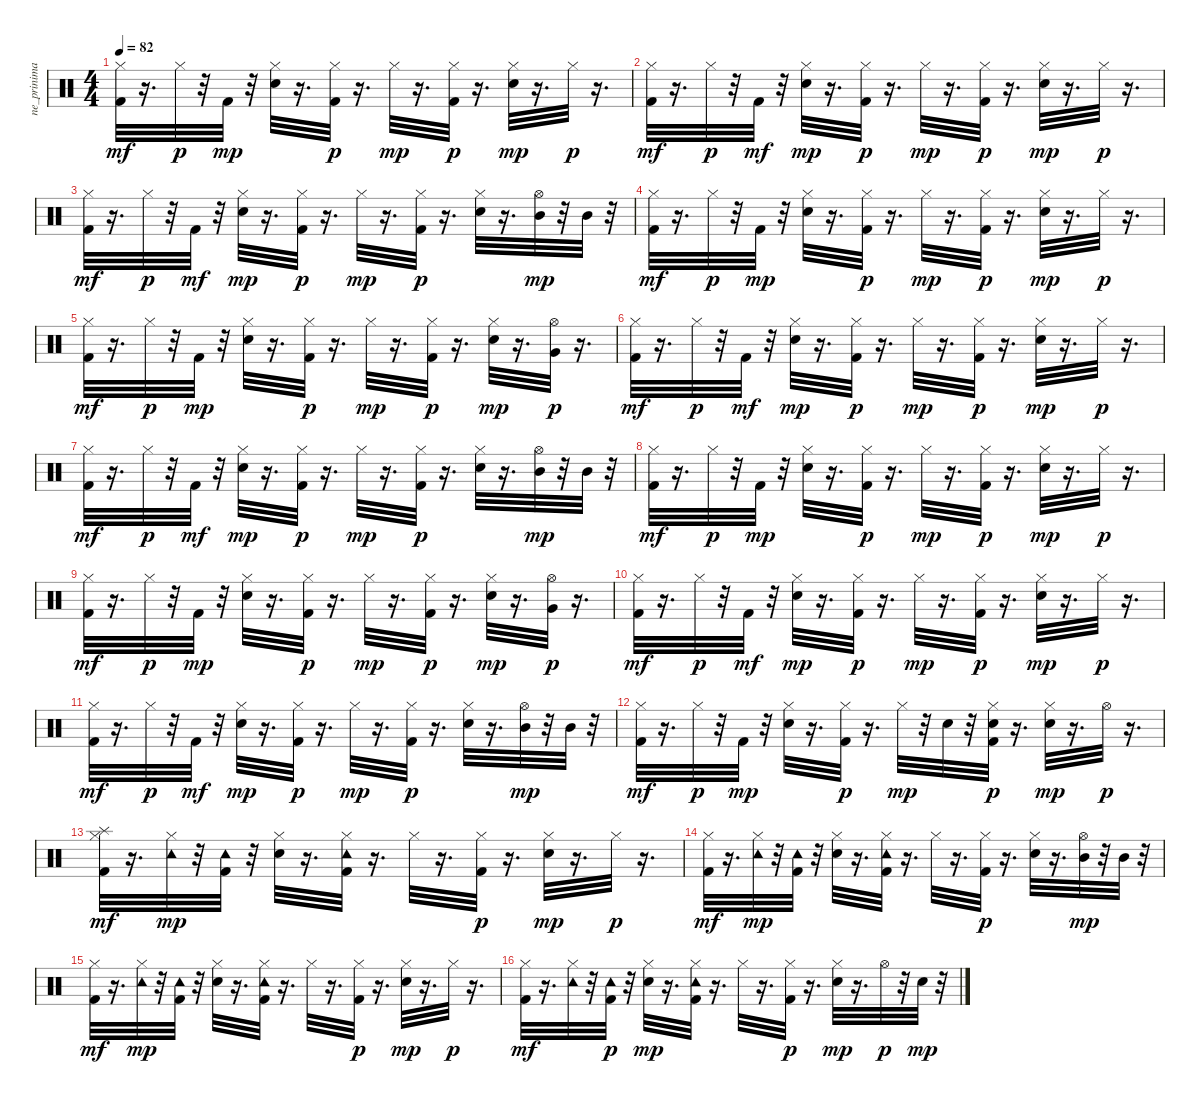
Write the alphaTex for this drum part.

\track ("ne_prinimai" "ne_prinima") {instrument percussion}
\staff {score}
\articulation defaults
\ts (4 4)
\tempo 82
\clef neutral
\ks c
("Kick (hit) 2" "Hi-Hat (closed)").32{dy mf} r.16{d} "Hi-Hat (closed)".32{dy p} r.32 "Kick (hit) 2".32{dy mp} r.32 ("Snare (hit) 2" "Hi-Hat (closed)").32 r.16{d} ("Kick (hit) 2" "Hi-Hat (closed)").32{dy p} r.16{d} "Hi-Hat (closed)".32{dy mp} r.16{d} ("Kick (hit) 2" "Hi-Hat (closed)").32{dy p} r.16{d} ("Snare (hit) 2" "Hi-Hat (closed)").32{dy mp} r.16{d} "Hi-Hat (closed)".32{dy p} r.16{d} |
("Kick (hit) 2" "Hi-Hat (closed)").32{dy mf} r.16{d} "Hi-Hat (closed)".32{dy p} r.32 "Kick (hit) 2".32{dy mf} r.32 ("Snare (hit) 2" "Hi-Hat (closed)").32{dy mp} r.16{d} ("Kick (hit) 2" "Hi-Hat (closed)").32{dy p} r.16{d} "Hi-Hat (closed)".32{dy mp} r.16{d} ("Kick (hit) 2" "Hi-Hat (closed)").32{dy p} r.16{d} ("Snare (hit) 2" "Hi-Hat (closed)").32{dy mp} r.16{d} "Hi-Hat (closed)".32{dy p} r.16{d} |
("Kick (hit) 2" "Hi-Hat (closed)").32{dy mf} r.16{d} "Hi-Hat (closed)".32{dy p} r.32 "Kick (hit) 2".32{dy mf} r.32 ("Snare (hit) 2" "Hi-Hat (closed)").32{dy mp} r.16{d} ("Kick (hit) 2" "Hi-Hat (closed)").32{dy p} r.16{d} "Hi-Hat (closed)".32{dy mp} r.16{d} ("Kick (hit) 2" "Hi-Hat (closed)").32{dy p} r.16{d} ("Snare (hit) 2" "Hi-Hat (closed)").32 r.16{d} ("Hi-Hat (open)" "Mid Tom (hit)").32{dy mp} r.32 "Mid Tom (hit)".32 r.32 |
("Kick (hit) 2" "Hi-Hat (closed)").32{dy mf} r.16{d} "Hi-Hat (closed)".32{dy p} r.32 "Kick (hit) 2".32{dy mp} r.32 ("Snare (hit) 2" "Hi-Hat (closed)").32 r.16{d} ("Kick (hit) 2" "Hi-Hat (closed)").32{dy p} r.16{d} "Hi-Hat (closed)".32{dy mp} r.16{d} ("Kick (hit) 2" "Hi-Hat (closed)").32{dy p} r.16{d} ("Snare (hit) 2" "Hi-Hat (closed)").32{dy mp} r.16{d} "Hi-Hat (closed)".32{dy p} r.16{d} |
("Kick (hit) 2" "Hi-Hat (closed)").32{dy mf} r.16{d} "Hi-Hat (closed)".32{dy p} r.32 "Kick (hit) 2".32{dy mp} r.32 ("Snare (hit) 2" "Hi-Hat (closed)").32 r.16{d} ("Kick (hit) 2" "Hi-Hat (closed)").32{dy p} r.16{d} "Hi-Hat (closed)".32{dy mp} r.16{d} ("Kick (hit) 2" "Hi-Hat (closed)").32{dy p} r.16{d} ("Snare (hit) 2" "Hi-Hat (closed)").32{dy mp} r.16{d} ("Very Low Tom (hit)" "Hi-Hat (open)").32{dy p} r.16{d} |
("Kick (hit) 2" "Hi-Hat (closed)").32{dy mf} r.16{d} "Hi-Hat (closed)".32{dy p} r.32 "Kick (hit) 2".32{dy mf} r.32 ("Snare (hit) 2" "Hi-Hat (closed)").32{dy mp} r.16{d} ("Kick (hit) 2" "Hi-Hat (closed)").32{dy p} r.16{d} "Hi-Hat (closed)".32{dy mp} r.16{d} ("Kick (hit) 2" "Hi-Hat (closed)").32{dy p} r.16{d} ("Snare (hit) 2" "Hi-Hat (closed)").32{dy mp} r.16{d} "Hi-Hat (closed)".32{dy p} r.16{d} |
("Kick (hit) 2" "Hi-Hat (closed)").32{dy mf} r.16{d} "Hi-Hat (closed)".32{dy p} r.32 "Kick (hit) 2".32{dy mf} r.32 ("Snare (hit) 2" "Hi-Hat (closed)").32{dy mp} r.16{d} ("Kick (hit) 2" "Hi-Hat (closed)").32{dy p} r.16{d} "Hi-Hat (closed)".32{dy mp} r.16{d} ("Kick (hit) 2" "Hi-Hat (closed)").32{dy p} r.16{d} ("Snare (hit) 2" "Hi-Hat (closed)").32 r.16{d} ("Hi-Hat (open)" "Mid Tom (hit)").32{dy mp} r.32 "Mid Tom (hit)".32 r.32 |
("Kick (hit) 2" "Hi-Hat (closed)").32{dy mf} r.16{d} "Hi-Hat (closed)".32{dy p} r.32 "Kick (hit) 2".32{dy mp} r.32 ("Snare (hit) 2" "Hi-Hat (closed)").32 r.16{d} ("Kick (hit) 2" "Hi-Hat (closed)").32{dy p} r.16{d} "Hi-Hat (closed)".32{dy mp} r.16{d} ("Kick (hit) 2" "Hi-Hat (closed)").32{dy p} r.16{d} ("Snare (hit) 2" "Hi-Hat (closed)").32{dy mp} r.16{d} "Hi-Hat (closed)".32{dy p} r.16{d} |
("Kick (hit) 2" "Hi-Hat (closed)").32{dy mf} r.16{d} "Hi-Hat (closed)".32{dy p} r.32 "Kick (hit) 2".32{dy mp} r.32 ("Snare (hit) 2" "Hi-Hat (closed)").32 r.16{d} ("Kick (hit) 2" "Hi-Hat (closed)").32{dy p} r.16{d} "Hi-Hat (closed)".32{dy mp} r.16{d} ("Kick (hit) 2" "Hi-Hat (closed)").32{dy p} r.16{d} ("Snare (hit) 2" "Hi-Hat (closed)").32{dy mp} r.16{d} ("Very Low Tom (hit)" "Hi-Hat (open)").32{dy p} r.16{d} |
("Kick (hit) 2" "Hi-Hat (closed)").32{dy mf} r.16{d} "Hi-Hat (closed)".32{dy p} r.32 "Kick (hit) 2".32{dy mf} r.32 ("Snare (hit) 2" "Hi-Hat (closed)").32{dy mp} r.16{d} ("Kick (hit) 2" "Hi-Hat (closed)").32{dy p} r.16{d} "Hi-Hat (closed)".32{dy mp} r.16{d} ("Kick (hit) 2" "Hi-Hat (closed)").32{dy p} r.16{d} ("Snare (hit) 2" "Hi-Hat (closed)").32{dy mp} r.16{d} "Hi-Hat (closed)".32{dy p} r.16{d} |
("Kick (hit) 2" "Hi-Hat (closed)").32{dy mf} r.16{d} "Hi-Hat (closed)".32{dy p} r.32 "Kick (hit) 2".32{dy mf} r.32 ("Snare (hit) 2" "Hi-Hat (closed)").32{dy mp} r.16{d} ("Kick (hit) 2" "Hi-Hat (closed)").32{dy p} r.16{d} "Hi-Hat (closed)".32{dy mp} r.16{d} ("Kick (hit) 2" "Hi-Hat (closed)").32{dy p} r.16{d} ("Snare (hit) 2" "Hi-Hat (closed)").32 r.16{d} ("Hi-Hat (open)" "Mid Tom (hit)").32{dy mp} r.32 "Mid Tom (hit)".32 r.32 |
("Kick (hit) 2" "Hi-Hat (closed)").32{dy mf} r.16{d} "Hi-Hat (closed)".32{dy p} r.32 "Kick (hit) 2".32{dy mp} r.32 ("Snare (hit) 2" "Hi-Hat (closed)").32 r.16{d} ("Kick (hit) 2" "Hi-Hat (closed)").32{dy p} r.16{d} "Hi-Hat (closed)".32{dy mp} r.32 "Snare (hit) 2".32 r.32 ("Kick (hit) 2" "Snare (hit) 2" "Hi-Hat (closed)").32{dy p} r.16{d} ("Electric Snare (hit)" "Hi-Hat (closed)").32{dy mp} r.16{d} "Hi-Hat (open)".32{dy p} r.16{d} |
("Kick (hit) 2" "Hi-Hat (closed)" "Splash (hit)").32{dy mf} r.16{d} ("Hi-Hat (closed)" "Tambourine (hit)").32{dy mp} r.32 ("Kick (hit) 2" "Tambourine (hit)").32 r.32 ("Electric Snare (hit)" "Hi-Hat (closed)").32 r.16{d} ("Kick (hit) 2" "Hi-Hat (closed)" "Tambourine (hit)").32 r.16{d} "Hi-Hat (closed)".32 r.16{d} ("Kick (hit) 2" "Hi-Hat (closed)").32{dy p} r.16{d} ("Electric Snare (hit)" "Hi-Hat (closed)").32{dy mp} r.16{d} "Hi-Hat (closed)".32{dy p} r.16{d} |
("Kick (hit) 2" "Hi-Hat (closed)").32{dy mf} r.16{d} ("Hi-Hat (closed)" "Tambourine (hit)").32{dy mp} r.32 ("Kick (hit) 2" "Tambourine (hit)").32 r.32 ("Electric Snare (hit)" "Hi-Hat (closed)").32 r.16{d} ("Kick (hit) 2" "Hi-Hat (closed)" "Tambourine (hit)").32 r.16{d} "Hi-Hat (closed)".32 r.16{d} ("Kick (hit) 2" "Hi-Hat (closed)").32{dy p} r.16{d} ("Electric Snare (hit)" "Hi-Hat (closed)").32 r.16{d} ("Hi-Hat (open)" "Mid Tom (hit)").32{dy mp} r.32 "Mid Tom (hit)".32 r.32 |
("Kick (hit) 2" "Hi-Hat (closed)").32{dy mf} r.16{d} ("Hi-Hat (closed)" "Tambourine (hit)").32{dy mp} r.32 ("Kick (hit) 2" "Tambourine (hit)").32 r.32 ("Electric Snare (hit)" "Hi-Hat (closed)").32 r.16{d} ("Kick (hit) 2" "Hi-Hat (closed)" "Tambourine (hit)").32 r.16{d} "Hi-Hat (closed)".32 r.16{d} ("Kick (hit) 2" "Hi-Hat (closed)").32{dy p} r.16{d} ("Electric Snare (hit)" "Hi-Hat (closed)").32{dy mp} r.16{d} "Hi-Hat (closed)".32{dy p} r.16{d} |
("Kick (hit) 2" "Hi-Hat (closed)").32{dy mf} r.16{d} ("Hi-Hat (closed)" "Tambourine (hit)").32 r.32 ("Kick (hit) 2" "Tambourine (hit)").32{dy p} r.32 ("Electric Snare (hit)" "Hi-Hat (closed)").32{dy mp} r.16{d} ("Kick (hit) 2" "Hi-Hat (closed)" "Tambourine (hit)").32 r.16{d} "Hi-Hat (closed)".32 r.16{d} ("Kick (hit) 2" "Hi-Hat (closed)").32{dy p} r.16{d} ("Electric Snare (hit)" "Hi-Hat (closed)").32{dy mp} r.16{d} "Hi-Hat (open)".32{dy p} r.32 "Electric Snare (hit)".32{dy mp} r.32
